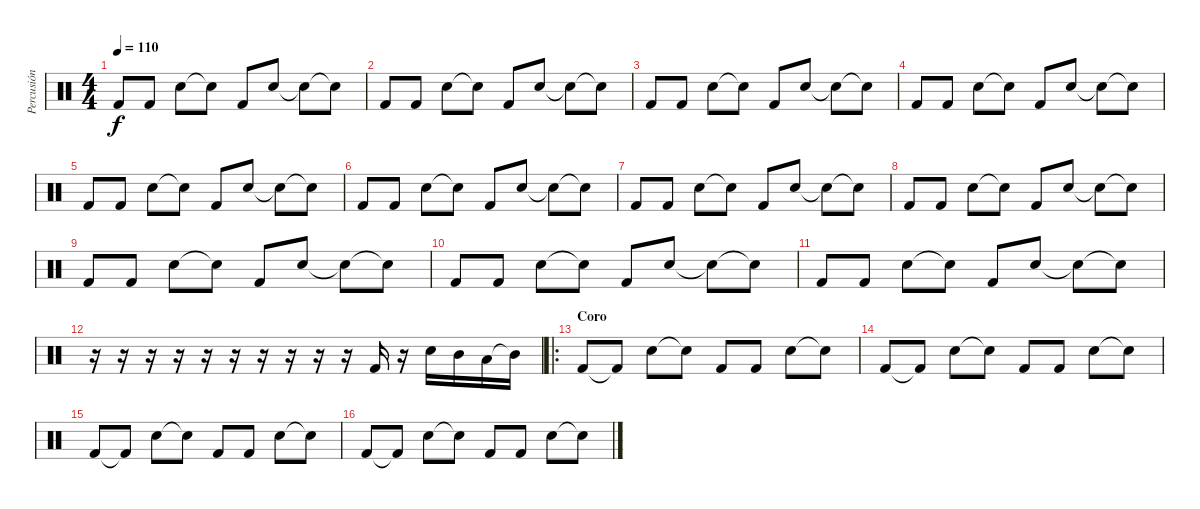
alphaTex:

\track ("Percusión" "Percusión") {instrument percussion}
\staff {score}
\articulation defaults
\ts (4 4)
\tempo 110
\clef neutral
\ks c "Kick (hit) 2".8{dy f} "Kick (hit) 2".8 "Electric Snare (hit)".8 "Snare (hit)"{t}.8 "Kick (hit) 2".8 "Electric Snare (hit)".8 "Electric Snare (hit)"{t}.8 "Snare (hit)"{t}.8
|
"Kick (hit) 2".8 "Kick (hit) 2".8 "Electric Snare (hit)".8 "Snare (hit)"{t}.8 "Kick (hit) 2".8 "Electric Snare (hit)".8 "Electric Snare (hit)"{t}.8 "Snare (hit)"{t}.8 |
"Kick (hit) 2".8 "Kick (hit) 2".8 "Electric Snare (hit)".8 "Snare (hit)"{t}.8 "Kick (hit) 2".8 "Electric Snare (hit)".8 "Electric Snare (hit)"{t}.8 "Snare (hit)"{t}.8 |
"Kick (hit) 2".8 "Kick (hit) 2".8 "Electric Snare (hit)".8 "Snare (hit)"{t}.8 "Kick (hit) 2".8 "Electric Snare (hit)".8 "Electric Snare (hit)"{t}.8 "Snare (hit)"{t}.8 |
"Kick (hit) 2".8 "Kick (hit) 2".8 "Electric Snare (hit)".8 "Snare (hit)"{t}.8 "Kick (hit) 2".8 "Electric Snare (hit)".8 "Electric Snare (hit)"{t}.8 "Snare (hit)"{t}.8 |
"Kick (hit) 2".8 "Kick (hit) 2".8 "Electric Snare (hit)".8 "Snare (hit)"{t}.8 "Kick (hit) 2".8 "Electric Snare (hit)".8 "Electric Snare (hit)"{t}.8 "Snare (hit)"{t}.8 |
"Kick (hit) 2".8 "Kick (hit) 2".8 "Electric Snare (hit)".8 "Snare (hit)"{t}.8 "Kick (hit) 2".8 "Electric Snare (hit)".8 "Electric Snare (hit)"{t}.8 "Snare (hit)"{t}.8 |
"Kick (hit) 2".8 "Kick (hit) 2".8 "Electric Snare (hit)".8 "Snare (hit)"{t}.8 "Kick (hit) 2".8 "Electric Snare (hit)".8 "Electric Snare (hit)"{t}.8 "Snare (hit)"{t}.8 |
"Kick (hit) 2".8 "Kick (hit) 2".8 "Electric Snare (hit)".8 "Snare (hit)"{t}.8 "Kick (hit) 2".8 "Electric Snare (hit)".8 "Electric Snare (hit)"{t}.8 "Snare (hit)"{t}.8 |
"Kick (hit) 2".8 "Kick (hit) 2".8 "Electric Snare (hit)".8 "Snare (hit)"{t}.8 "Kick (hit) 2".8 "Electric Snare (hit)".8 "Electric Snare (hit)"{t}.8 "Snare (hit)"{t}.8 |
"Kick (hit) 2".8 "Kick (hit) 2".8 "Electric Snare (hit)".8 "Snare (hit)"{t}.8 "Kick (hit) 2".8 "Electric Snare (hit)".8 "Electric Snare (hit)"{t}.8 "Snare (hit)"{t}.8 |
r.16 r.16 r.16 r.16 r.16 r.16 r.16 r.16 r.16 r.16 "Kick (hit) 2".16{volume 16} r.16 "Electric Snare (hit)".16 "Mid Tom (hit)".16 "Low Tom (hit)".16 "Mid Tom (hit)"{t}.16 |
\ro
\section ("" "Coro")
"Kick (hit) 2".8{volume 14} "Kick (hit) 2"{t}.8 "Electric Snare (hit)".8 "Snare (hit)"{t}.8 "Kick (hit) 2".8 "Kick (hit) 2".8 "Electric Snare (hit)".8 "Snare (hit)"{t}.8 |
"Kick (hit) 2".8 "Kick (hit) 2"{t}.8 "Electric Snare (hit)".8 "Snare (hit)"{t}.8 "Kick (hit) 2".8 "Kick (hit) 2".8 "Electric Snare (hit)".8 "Snare (hit)"{t}.8 |
"Kick (hit) 2".8 "Kick (hit) 2"{t}.8 "Electric Snare (hit)".8 "Snare (hit)"{t}.8 "Kick (hit) 2".8 "Kick (hit) 2".8 "Electric Snare (hit)".8 "Snare (hit)"{t}.8 |
"Kick (hit) 2".8 "Kick (hit) 2"{t}.8 "Electric Snare (hit)".8 "Snare (hit)"{t}.8 "Kick (hit) 2".8 "Kick (hit) 2".8 "Electric Snare (hit)".8 "Snare (hit)"{t}.8
